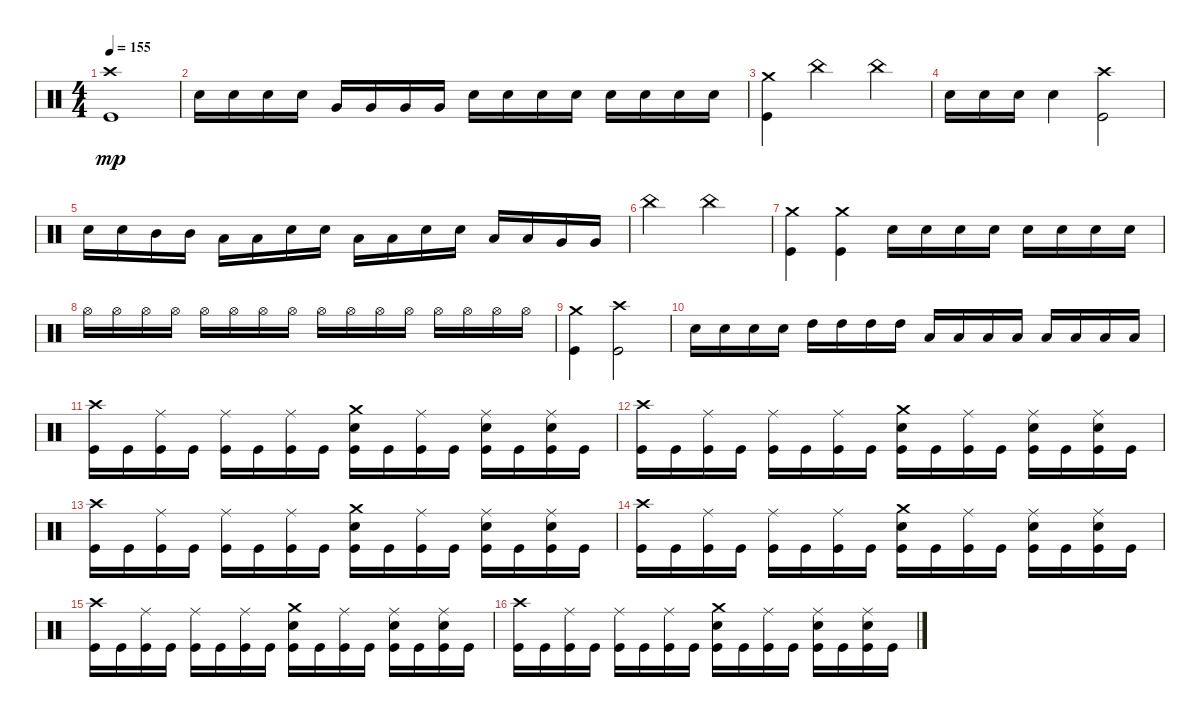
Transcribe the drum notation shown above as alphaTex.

\track "" {instrument percussion}
\staff {score}
\articulation defaults
\ts (4 4)
\tempo 155
\clef neutral
\ks c
("Kick (hit)" "Crash high (hit)").1{dy mp} |
"Snare (hit) 2".16 "Snare (hit) 2".16 "Snare (hit) 2".16 "Snare (hit) 2".16 "Very Low Tom (hit)".16 "Very Low Tom (hit)".16 "Very Low Tom (hit)".16 "Very Low Tom (hit)".16 "Snare (hit) 2".16 "Snare (hit) 2".16 "Snare (hit) 2".16 "Snare (hit) 2".16 "Snare (hit) 2".16 "Snare (hit) 2".16 "Snare (hit) 2".16 "Snare (hit) 2".16 |
("Kick (hit)" "Crash medium (hit)").4 "China (hit)".2 "China (hit)".4 |
"Snare (hit) 2".16 "Snare (hit) 2".16 "Snare (hit) 2".16 "Snare (hit) 2".4 ("Kick (hit)" "Crash high (hit)").2 |
"Snare (hit) 2".16 "Snare (hit) 2".16 "Mid Tom (hit)".16 "Mid Tom (hit)".16 "Low Tom (hit)".16 "Low Tom (hit)".16 "Snare (hit) 2".16 "Snare (hit) 2".16 "Low Floor Tom (hit)".16 "Low Floor Tom (hit)".16 "Snare (hit) 2".16 "Snare (hit) 2".16 "Low Tom (hit)".16 "Low Tom (hit)".16 "Very Low Tom (hit)".16 "Very Low Tom (hit)".16 |
"China (hit)".2 "China (hit)".2 |
("Crash medium (hit)" "Kick (hit)").4 ("Kick (hit)" "Crash medium (hit)").4 "Snare (hit) 2".16 "Snare (hit) 2".16 "Snare (hit) 2".16 "Snare (hit) 2".16 "Snare (hit) 2".16 "Snare (hit) 2".16 "Snare (hit) 2".16 "Snare (hit) 2".16 |
"Hi-Hat (open)".16 "Hi-Hat (open)".16 "Hi-Hat (open)".16 "Hi-Hat (open)".16 "Hi-Hat (open)".16 "Hi-Hat (open)".16 "Hi-Hat (open)".16 "Hi-Hat (open)".16 "Hi-Hat (open)".16 "Hi-Hat (open)".16 "Hi-Hat (open)".16 "Hi-Hat (open)".16 "Hi-Hat (open)".16 "Hi-Hat (open)".16 "Hi-Hat (open)".16 "Hi-Hat (open)".16 |
("Kick (hit)" "Crash medium (hit)").4 ("Crash high (hit)" "Kick (hit)").2 |
"Snare (hit) 2".16 "Snare (hit) 2".16 "Snare (hit) 2".16 "Snare (hit) 2".16 "High Tom (hit)".16 "High Tom (hit)".16 "High Tom (hit)".16 "High Tom (hit)".16 "Low Tom (hit)".16 "Low Tom (hit)".16 "Low Tom (hit)".16 "Low Tom (hit)".16 "Low Floor Tom (hit)".16 "Low Floor Tom (hit)".16 "Low Floor Tom (hit)".16 "Low Floor Tom (hit)".16 |
("Crash high (hit)" "Kick (hit)").16 "Kick (hit)".16 ("Kick (hit)" "Ride (middle)").16 "Kick (hit)".16 ("Kick (hit)" "Ride (middle)").16 "Kick (hit)".16 ("Kick (hit)" "Ride (middle)").16 "Kick (hit)".16 ("Kick (hit)" "Snare (hit) 2" "Crash medium (hit)").16 "Kick (hit)".16 ("Kick (hit)" "Ride (middle)").16 "Kick (hit)".16 ("Kick (hit)" "Ride (middle)" "Snare (hit) 2").16 "Kick (hit)".16 ("Kick (hit)" "Ride (middle)" "Snare (hit) 2").16 "Kick (hit)".16 |
("Kick (hit)" "Crash high (hit)").16 "Kick (hit)".16 ("Kick (hit)" "Ride (middle)").16 "Kick (hit)".16 ("Kick (hit)" "Ride (middle)").16 "Kick (hit)".16 ("Kick (hit)" "Ride (middle)").16 "Kick (hit)".16 ("Kick (hit)" "Snare (hit) 2" "Crash medium (hit)").16 "Kick (hit)".16 ("Kick (hit)" "Ride (middle)").16 "Kick (hit)".16 ("Kick (hit)" "Ride (middle)" "Snare (hit) 2").16 "Kick (hit)".16 ("Kick (hit)" "Ride (middle)" "Snare (hit) 2").16 "Kick (hit)".16 |
("Crash high (hit)" "Kick (hit)").16 "Kick (hit)".16 ("Kick (hit)" "Ride (middle)").16 "Kick (hit)".16 ("Kick (hit)" "Ride (middle)").16 "Kick (hit)".16 ("Kick (hit)" "Ride (middle)").16 "Kick (hit)".16 ("Kick (hit)" "Snare (hit) 2" "Crash medium (hit)").16 "Kick (hit)".16 ("Kick (hit)" "Ride (middle)").16 "Kick (hit)".16 ("Kick (hit)" "Ride (middle)" "Snare (hit) 2").16 "Kick (hit)".16 ("Kick (hit)" "Ride (middle)" "Snare (hit) 2").16 "Kick (hit)".16 |
("Kick (hit)" "Crash high (hit)").16 "Kick (hit)".16 ("Kick (hit)" "Ride (middle)").16 "Kick (hit)".16 ("Kick (hit)" "Ride (middle)").16 "Kick (hit)".16 ("Kick (hit)" "Ride (middle)").16 "Kick (hit)".16 ("Kick (hit)" "Snare (hit) 2" "Crash medium (hit)").16 "Kick (hit)".16 ("Kick (hit)" "Ride (middle)").16 "Kick (hit)".16 ("Ride (middle)" "Kick (hit)" "Snare (hit) 2").16 "Kick (hit)".16 ("Ride (middle)" "Kick (hit)" "Snare (hit) 2").16 "Kick (hit)".16 |
("Crash high (hit)" "Kick (hit)").16 "Kick (hit)".16 ("Kick (hit)" "Ride (middle)").16 "Kick (hit)".16 ("Kick (hit)" "Ride (middle)").16 "Kick (hit)".16 ("Kick (hit)" "Ride (middle)").16 "Kick (hit)".16 ("Kick (hit)" "Snare (hit) 2" "Crash medium (hit)").16 "Kick (hit)".16 ("Kick (hit)" "Ride (middle)").16 "Kick (hit)".16 ("Kick (hit)" "Ride (middle)" "Snare (hit) 2").16 "Kick (hit)".16 ("Kick (hit)" "Ride (middle)" "Snare (hit) 2").16 "Kick (hit)".16 |
("Kick (hit)" "Crash high (hit)").16 "Kick (hit)".16 ("Kick (hit)" "Ride (middle)").16 "Kick (hit)".16 ("Kick (hit)" "Ride (middle)").16 "Kick (hit)".16 ("Kick (hit)" "Ride (middle)").16 "Kick (hit)".16 ("Kick (hit)" "Snare (hit) 2" "Crash medium (hit)").16 "Kick (hit)".16 ("Kick (hit)" "Ride (middle)").16 "Kick (hit)".16 ("Kick (hit)" "Ride (middle)" "Snare (hit) 2").16 "Kick (hit)".16 ("Kick (hit)" "Ride (middle)" "Snare (hit) 2").16 "Kick (hit)".16
